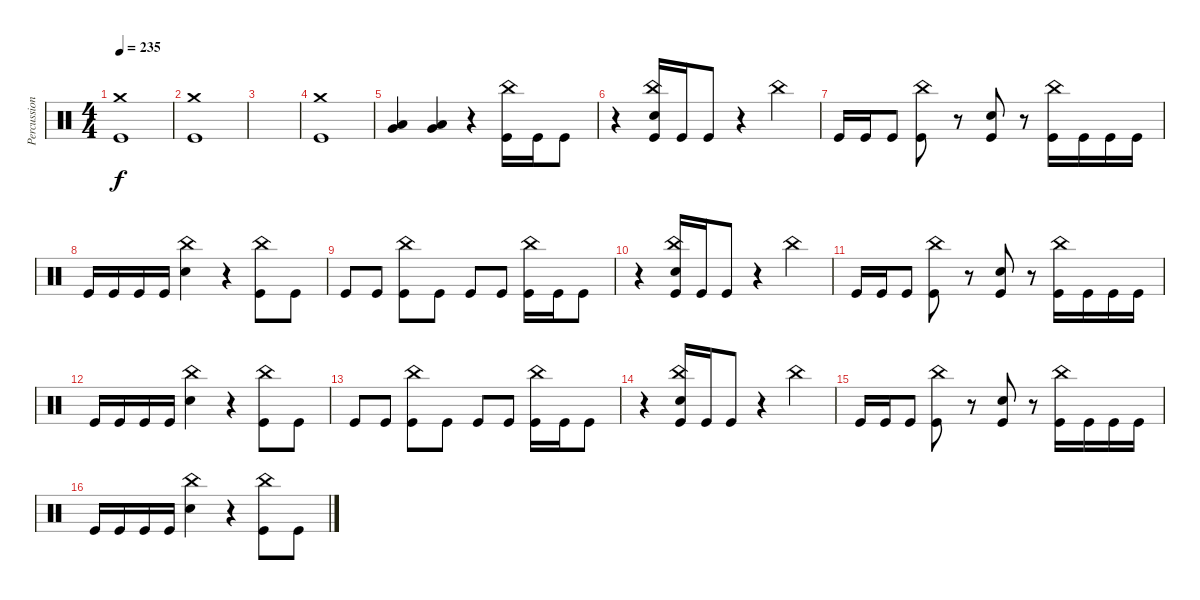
\track ("Percussion" "Percussion") {instrument percussion}
\staff {score}
\articulation defaults
\ts (4 4)
\tempo 235
\clef neutral
\ks c
("Kick (hit)" "Crash medium (hit)").1{dy f} |
("Kick (hit)" "Crash medium (hit)").1 |
|
("Kick (hit)" "Crash medium (hit)").1 |
("Very Low Tom (hit)" "Low Floor Tom (hit)").4 ("Very Low Tom (hit)" "Low Floor Tom (hit)").4 r.4 ("Kick (hit)" "China (hit)").16 "Kick (hit)".16 "Kick (hit)".8 |
r.4 ("Kick (hit)" "Snare (hit) 2" "China (hit)").16 "Kick (hit)".16 "Kick (hit)".8 r.4 "China (hit)".4 |
"Kick (hit)".16 "Kick (hit)".16 "Kick (hit)".8 ("Kick (hit)" "China (hit)").8 r.8 ("Kick (hit)" "Snare (hit) 2").8 r.8 ("Kick (hit)" "China (hit)").16 "Kick (hit)".16 "Kick (hit)".16 "Kick (hit)".16 |
"Kick (hit)".16 "Kick (hit)".16 "Kick (hit)".16 "Kick (hit)".16 ("Snare (hit) 2" "China (hit)").4 r.4 ("Kick (hit)" "China (hit)").8 "Kick (hit)".8 |
"Kick (hit)".8 "Kick (hit)".8 ("Kick (hit)" "China (hit)").8 "Kick (hit)".8 "Kick (hit)".8 "Kick (hit)".8 ("Kick (hit)" "China (hit)").16 "Kick (hit)".16 "Kick (hit)".8 |
r.4 ("Kick (hit)" "Snare (hit) 2" "China (hit)").16 "Kick (hit)".16 "Kick (hit)".8 r.4 "China (hit)".4 |
"Kick (hit)".16 "Kick (hit)".16 "Kick (hit)".8 ("Kick (hit)" "China (hit)").8 r.8 ("Kick (hit)" "Snare (hit) 2").8 r.8 ("Kick (hit)" "China (hit)").16 "Kick (hit)".16 "Kick (hit)".16 "Kick (hit)".16 |
"Kick (hit)".16 "Kick (hit)".16 "Kick (hit)".16 "Kick (hit)".16 ("Snare (hit) 2" "China (hit)").4 r.4 ("Kick (hit)" "China (hit)").8 "Kick (hit)".8 |
"Kick (hit)".8 "Kick (hit)".8 ("Kick (hit)" "China (hit)").8 "Kick (hit)".8 "Kick (hit)".8 "Kick (hit)".8 ("Kick (hit)" "China (hit)").16 "Kick (hit)".16 "Kick (hit)".8 |
r.4 ("Kick (hit)" "Snare (hit) 2" "China (hit)").16 "Kick (hit)".16 "Kick (hit)".8 r.4 "China (hit)".4 |
"Kick (hit)".16 "Kick (hit)".16 "Kick (hit)".8 ("Kick (hit)" "China (hit)").8 r.8 ("Kick (hit)" "Snare (hit) 2").8 r.8 ("Kick (hit)" "China (hit)").16 "Kick (hit)".16 "Kick (hit)".16 "Kick (hit)".16 |
"Kick (hit)".16 "Kick (hit)".16 "Kick (hit)".16 "Kick (hit)".16 ("Snare (hit) 2" "China (hit)").4 r.4 ("Kick (hit)" "China (hit)").8 "Kick (hit)".8
